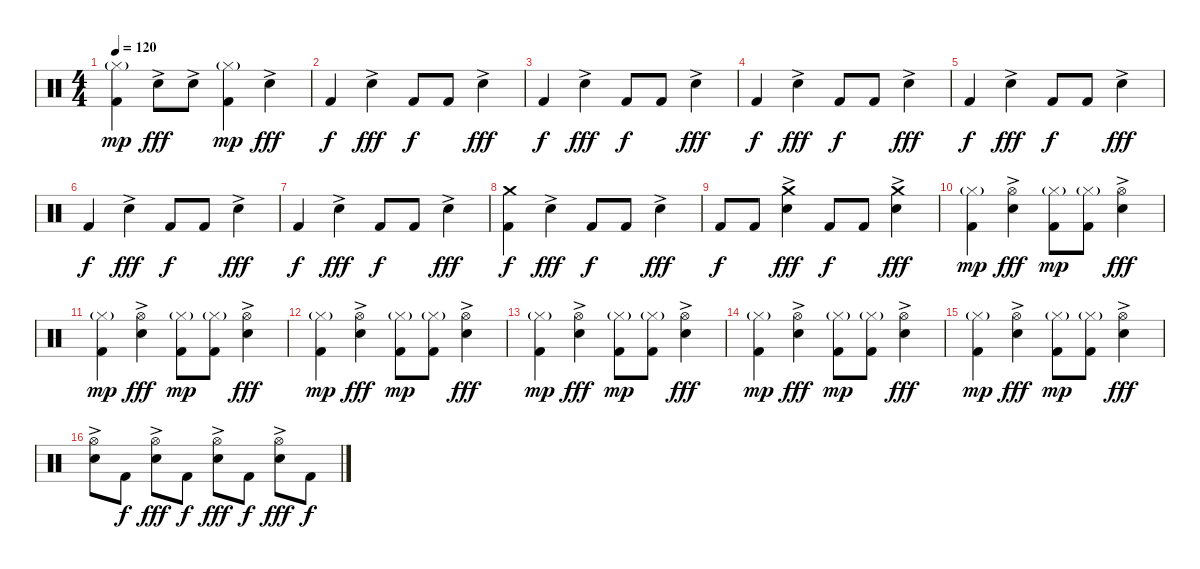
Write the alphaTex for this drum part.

\track "" {instrument percussion}
\staff {score}
\articulation defaults
\ts (4 4)
\tempo 120
\clef neutral
\ks c
("Kick (hit) 2" "Hi-Hat (closed)"{g}).4{dy mp} "Electric Snare (hit)"{ac}.8{dy fff} "Electric Snare (hit)"{ac}.8 ("Kick (hit) 2" "Hi-Hat (closed)"{g}).4{dy mp} "Electric Snare (hit)"{ac}.4{dy fff} |
"Kick (hit) 2".4{dy f} "Electric Snare (hit)"{ac}.4{dy fff} "Kick (hit) 2".8{dy f} "Kick (hit) 2".8 "Electric Snare (hit)"{ac}.4{dy fff} |
"Kick (hit) 2".4{dy f} "Electric Snare (hit)"{ac}.4{dy fff} "Kick (hit) 2".8{dy f} "Kick (hit) 2".8 "Electric Snare (hit)"{ac}.4{dy fff} |
"Kick (hit) 2".4{dy f} "Electric Snare (hit)"{ac}.4{dy fff} "Kick (hit) 2".8{dy f} "Kick (hit) 2".8 "Electric Snare (hit)"{ac}.4{dy fff} |
"Kick (hit) 2".4{dy f} "Electric Snare (hit)"{ac}.4{dy fff} "Kick (hit) 2".8{dy f} "Kick (hit) 2".8 "Electric Snare (hit)"{ac}.4{dy fff} |
"Kick (hit) 2".4{dy f} "Electric Snare (hit)"{ac}.4{dy fff} "Kick (hit) 2".8{dy f} "Kick (hit) 2".8 "Electric Snare (hit)"{ac}.4{dy fff} |
"Kick (hit) 2".4{dy f} "Electric Snare (hit)"{ac}.4{dy fff} "Kick (hit) 2".8{dy f} "Kick (hit) 2".8 "Electric Snare (hit)"{ac}.4{dy fff} |
("Kick (hit) 2" "Crash medium (hit)").4{dy f} "Electric Snare (hit)"{ac}.4{dy fff} "Kick (hit) 2".8{dy f} "Kick (hit) 2".8 "Electric Snare (hit)"{ac}.4{dy fff} |
"Kick (hit) 2".8{dy f} "Kick (hit) 2".8 ("Electric Snare (hit)"{ac} "Crash medium (hit)").4{dy fff} "Kick (hit) 2".8{dy f} "Kick (hit) 2".8 ("Electric Snare (hit)"{ac} "Crash medium (hit)").4{dy fff} |
("Kick (hit) 2" "Hi-Hat (closed)"{g}).4{dy mp} ("Electric Snare (hit)"{ac} "Hi-Hat (open)").4{dy fff} ("Kick (hit) 2" "Hi-Hat (closed)"{g}).8{dy mp} ("Kick (hit) 2" "Hi-Hat (closed)"{g}).8 ("Electric Snare (hit)"{ac} "Hi-Hat (open)").4{dy fff} |
("Kick (hit) 2" "Hi-Hat (closed)"{g}).4{dy mp} ("Electric Snare (hit)"{ac} "Hi-Hat (open)").4{dy fff} ("Kick (hit) 2" "Hi-Hat (closed)"{g}).8{dy mp} ("Kick (hit) 2" "Hi-Hat (closed)"{g}).8 ("Electric Snare (hit)"{ac} "Hi-Hat (open)").4{dy fff} |
("Kick (hit) 2" "Hi-Hat (closed)"{g}).4{dy mp} ("Electric Snare (hit)"{ac} "Hi-Hat (open)").4{dy fff} ("Kick (hit) 2" "Hi-Hat (closed)"{g}).8{dy mp} ("Kick (hit) 2" "Hi-Hat (closed)"{g}).8 ("Electric Snare (hit)"{ac} "Hi-Hat (open)").4{dy fff} |
("Kick (hit) 2" "Hi-Hat (closed)"{g}).4{dy mp} ("Electric Snare (hit)"{ac} "Hi-Hat (open)").4{dy fff} ("Kick (hit) 2" "Hi-Hat (closed)"{g}).8{dy mp} ("Kick (hit) 2" "Hi-Hat (closed)"{g}).8 ("Electric Snare (hit)"{ac} "Hi-Hat (open)").4{dy fff} |
("Kick (hit) 2" "Hi-Hat (closed)"{g}).4{dy mp} ("Electric Snare (hit)"{ac} "Hi-Hat (open)").4{dy fff} ("Kick (hit) 2" "Hi-Hat (closed)"{g}).8{dy mp} ("Kick (hit) 2" "Hi-Hat (closed)"{g}).8 ("Electric Snare (hit)"{ac} "Hi-Hat (open)").4{dy fff} |
("Kick (hit) 2" "Hi-Hat (closed)"{g}).4{dy mp} ("Electric Snare (hit)"{ac} "Hi-Hat (open)").4{dy fff} ("Kick (hit) 2" "Hi-Hat (closed)"{g}).8{dy mp} ("Kick (hit) 2" "Hi-Hat (closed)"{g}).8 ("Electric Snare (hit)"{ac} "Hi-Hat (open)").4{dy fff} |
("Electric Snare (hit)"{ac} "Hi-Hat (open)").8 "Kick (hit) 2".8{dy f} ("Electric Snare (hit)"{ac} "Hi-Hat (open)").8{dy fff} "Kick (hit) 2".8{dy f} ("Electric Snare (hit)"{ac} "Hi-Hat (open)").8{dy fff} "Kick (hit) 2".8{dy f} ("Electric Snare (hit)"{ac} "Hi-Hat (open)").8{dy fff} "Kick (hit) 2".8{dy f}
